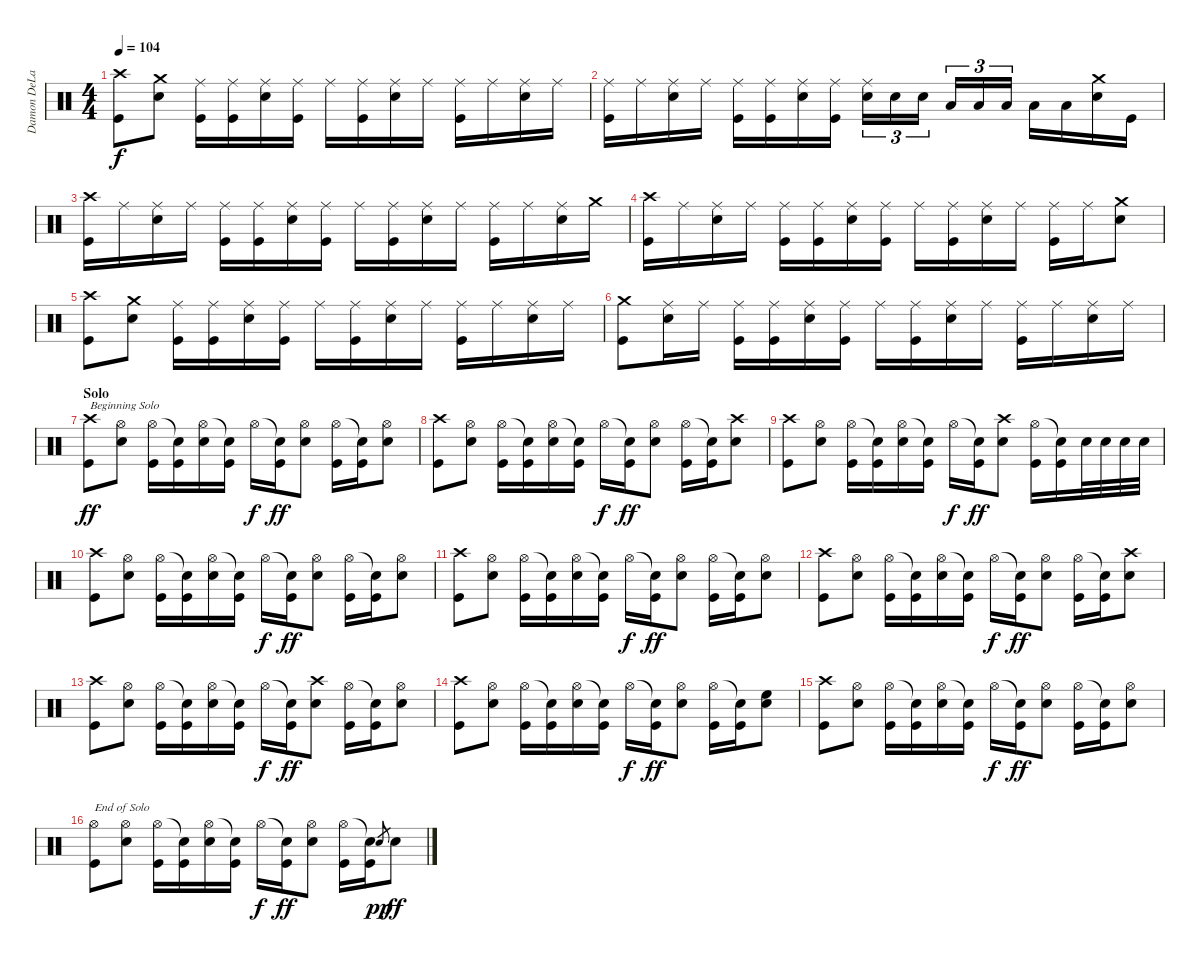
\track ("Damon DeLapaz - Drums" "Damon DeLa") {instrument percussion}
\staff {score}
\articulation defaults
\ts (4 4)
\tempo 104
\clef neutral
\ks c
("Crash high (hit)" "Kick (hit)").8{dy f} ("Crash medium (hit)" "Snare (hit) 2").8 ("Ride (middle)" "Kick (hit)").16 ("Ride (middle)" "Kick (hit)").16 ("Ride (middle)" "Snare (hit) 2").16 ("Ride (middle)" "Kick (hit)").16 "Ride (middle)".16 ("Ride (middle)" "Kick (hit)").16 ("Ride (middle)" "Snare (hit) 2").16 "Ride (middle)".16 ("Ride (middle)" "Kick (hit)").16 "Ride (middle)".16 ("Ride (middle)" "Snare (hit) 2").16 "Ride (middle)".16 |
("Ride (middle)" "Kick (hit)").16 "Ride (middle)".16 ("Ride (middle)" "Snare (hit) 2").16 "Ride (middle)".16 ("Ride (middle)" "Kick (hit)").16 ("Ride (middle)" "Kick (hit)").16 ("Ride (middle)" "Snare (hit) 2").16 ("Ride (middle)" "Kick (hit)").16 ("Ride (middle)" "Snare (hit) 2").16{tu (3 2)} "Snare (hit) 2".16{tu (3 2)} "Snare (hit) 2".16{tu (3 2)} "Low Tom (hit)".16{tu (3 2)} "Low Tom (hit)".16{tu (3 2)} "Low Tom (hit)".16{tu (3 2)} "Low Floor Tom (hit)".16 "Low Floor Tom (hit)".16 ("Crash medium (hit)" "Snare (hit) 2").16 "Kick (hit)".16 |
("Crash high (hit)" "Kick (hit)").16 "Ride (middle)".16 ("Ride (middle)" "Snare (hit) 2").16 "Ride (middle)".16 ("Ride (middle)" "Kick (hit)").16 ("Ride (middle)" "Kick (hit)").16 ("Ride (middle)" "Snare (hit) 2").16 ("Ride (middle)" "Kick (hit)").16 "Ride (middle)".16 ("Ride (middle)" "Kick (hit)").16 ("Ride (middle)" "Snare (hit) 2").16 "Ride (middle)".16 ("Ride (middle)" "Kick (hit)").16 "Ride (middle)".16 ("Ride (middle)" "Snare (hit) 2").16 "Crash medium (hit)".16 |
("Crash high (hit)" "Kick (hit)").16 "Ride (middle)".16 ("Ride (middle)" "Snare (hit) 2").16 "Ride (middle)".16 ("Ride (middle)" "Kick (hit)").16 ("Ride (middle)" "Kick (hit)").16 ("Ride (middle)" "Snare (hit) 2").16 ("Ride (middle)" "Kick (hit)").16 "Ride (middle)".16 ("Ride (middle)" "Kick (hit)").16 ("Ride (middle)" "Snare (hit) 2").16 "Ride (middle)".16 ("Ride (middle)" "Kick (hit)").16 "Ride (middle)".16 ("Crash medium (hit)" "Snare (hit) 2").8 |
("Crash high (hit)" "Kick (hit)").8 ("Crash medium (hit)" "Snare (hit) 2").8 ("Ride (middle)" "Kick (hit)").16 ("Ride (middle)" "Kick (hit)").16 ("Ride (middle)" "Snare (hit) 2").16 ("Ride (middle)" "Kick (hit)").16 "Ride (middle)".16 ("Ride (middle)" "Kick (hit)").16 ("Ride (middle)" "Snare (hit) 2").16 "Ride (middle)".16 ("Ride (middle)" "Kick (hit)").16 "Ride (middle)".16 ("Ride (middle)" "Snare (hit) 2").16 "Ride (middle)".16 |
("Crash medium (hit)" "Kick (hit)").8 ("Ride (middle)" "Snare (hit) 2").16 "Ride (middle)".16 ("Ride (middle)" "Kick (hit)").16 ("Ride (middle)" "Kick (hit)").16 ("Ride (middle)" "Snare (hit) 2").16 ("Ride (middle)" "Kick (hit)").16 "Ride (middle)".16 ("Ride (middle)" "Kick (hit)").16 ("Ride (middle)" "Snare (hit) 2").16 "Ride (middle)".16 ("Ride (middle)" "Kick (hit)").16 "Ride (middle)".16 ("Ride (middle)" "Snare (hit) 2").16 "Ride (middle)".16 |
\section ("" "Solo")
("Crash high (hit)" "Kick (hit)").8{txt "Beginning Solo" dy ff volume 12} ("Hi-Hat (open)" "Snare (hit) 2").8 ("Hi-Hat (open)" "Kick (hit)").16 ("Snare (hit)"{t} "Kick (hit)").16 ("Hi-Hat (open)" "Snare (hit) 2").16 ("Snare (hit)"{t} "Kick (hit)").16 "Hi-Hat (open)".16{dy f} ("Snare (hit)"{t} "Kick (hit)").16{dy ff} ("Hi-Hat (open)" "Snare (hit) 2").8 ("Hi-Hat (open)" "Kick (hit)").16 ("Snare (hit)"{t} "Kick (hit)").16 ("Hi-Hat (open)" "Snare (hit) 2").8 |
("Crash high (hit)" "Kick (hit)").8 ("Hi-Hat (open)" "Snare (hit) 2").8 ("Hi-Hat (open)" "Kick (hit)").16 ("Snare (hit)"{t} "Kick (hit)").16 ("Hi-Hat (open)" "Snare (hit) 2").16 ("Snare (hit)"{t} "Kick (hit)").16 "Hi-Hat (open)".16{dy f} ("Snare (hit)"{t} "Kick (hit)").16{dy ff} ("Hi-Hat (open)" "Snare (hit) 2").8 ("Hi-Hat (open)" "Kick (hit)").16 ("Snare (hit)"{t} "Kick (hit)").16 ("Crash high (hit)" "Snare (hit) 2").8 |
("Crash high (hit)" "Kick (hit)").8 ("Hi-Hat (open)" "Snare (hit) 2").8 ("Hi-Hat (open)" "Kick (hit)").16 ("Snare (hit)"{t} "Kick (hit)").16 ("Hi-Hat (open)" "Snare (hit) 2").16 ("Snare (hit)"{t} "Kick (hit)").16 "Hi-Hat (open)".16{dy f} ("Snare (hit)"{t} "Kick (hit)").16{dy ff} ("Crash high (hit)" "Snare (hit) 2").8 ("Hi-Hat (open)" "Kick (hit)").16 ("Snare (hit)"{t} "Kick (hit)").16 "Snare (hit) 2".32 "Snare (hit) 2".32 "Snare (hit) 2".32 "Snare (hit) 2".32 |
("Crash high (hit)" "Kick (hit)").8 ("Hi-Hat (open)" "Snare (hit) 2").8 ("Hi-Hat (open)" "Kick (hit)").16 ("Snare (hit)"{t} "Kick (hit)").16 ("Hi-Hat (open)" "Snare (hit) 2").16 ("Snare (hit)"{t} "Kick (hit)").16 "Hi-Hat (open)".16{dy f} ("Snare (hit)"{t} "Kick (hit)").16{dy ff} ("Hi-Hat (open)" "Snare (hit) 2").8 ("Hi-Hat (open)" "Kick (hit)").16 ("Snare (hit)"{t} "Kick (hit)").16 ("Hi-Hat (open)" "Snare (hit) 2").8 |
("Crash high (hit)" "Kick (hit)").8 ("Hi-Hat (open)" "Snare (hit) 2").8 ("Hi-Hat (open)" "Kick (hit)").16 ("Snare (hit)"{t} "Kick (hit)").16 ("Hi-Hat (open)" "Snare (hit) 2").16 ("Snare (hit)"{t} "Kick (hit)").16 "Hi-Hat (open)".16{dy f} ("Snare (hit)"{t} "Kick (hit)").16{dy ff} ("Hi-Hat (open)" "Snare (hit) 2").8 ("Hi-Hat (open)" "Kick (hit)").16 ("Snare (hit)"{t} "Kick (hit)").16 ("Hi-Hat (open)" "Snare (hit) 2").8 |
("Crash high (hit)" "Kick (hit)").8 ("Hi-Hat (open)" "Snare (hit) 2").8 ("Hi-Hat (open)" "Kick (hit)").16 ("Snare (hit)"{t} "Kick (hit)").16 ("Hi-Hat (open)" "Snare (hit) 2").16 ("Snare (hit)"{t} "Kick (hit)").16 "Hi-Hat (open)".16{dy f} ("Snare (hit)"{t} "Kick (hit)").16{dy ff} ("Hi-Hat (open)" "Snare (hit) 2").8 ("Hi-Hat (open)" "Kick (hit)").16 ("Snare (hit)"{t} "Kick (hit)").16 ("Crash high (hit)" "Snare (hit) 2").8 |
("Crash high (hit)" "Kick (hit)").8{volume 13} ("Hi-Hat (open)" "Snare (hit) 2").8 ("Hi-Hat (open)" "Kick (hit)").16 ("Snare (hit)"{t} "Kick (hit)").16 ("Hi-Hat (open)" "Snare (hit) 2").16 ("Snare (hit)"{t} "Kick (hit)").16 "Hi-Hat (open)".16{dy f} ("Snare (hit)"{t} "Kick (hit)").16{dy ff} ("Crash high (hit)" "Snare (hit) 2").8 ("Hi-Hat (open)" "Kick (hit)").16 ("Snare (hit)"{t} "Kick (hit)").16 ("Hi-Hat (open)" "Snare (hit) 2").8 |
("Crash high (hit)" "Kick (hit)").8 ("Hi-Hat (open)" "Snare (hit) 2").8 ("Hi-Hat (open)" "Kick (hit)").16 ("Snare (hit)"{t} "Kick (hit)").16 ("Hi-Hat (open)" "Snare (hit) 2").16 ("Snare (hit)"{t} "Kick (hit)").16 "Hi-Hat (open)".16{dy f} ("Snare (hit)"{t} "Kick (hit)").16{dy ff} ("Hi-Hat (open)" "Snare (hit) 2").8 ("Hi-Hat (open)" "Kick (hit)").16 ("Snare (hit)"{t} "Kick (hit)").16 ("Snare (hit) 2" "High Floor Tom (hit)").8 |
("Crash high (hit)" "Kick (hit)").8 ("Hi-Hat (open)" "Snare (hit) 2").8 ("Hi-Hat (open)" "Kick (hit)").16 ("Snare (hit)"{t} "Kick (hit)").16 ("Hi-Hat (open)" "Snare (hit) 2").16 ("Snare (hit)"{t} "Kick (hit)").16 "Hi-Hat (open)".16{dy f} ("Snare (hit)"{t} "Kick (hit)").16{dy ff} ("Hi-Hat (open)" "Snare (hit) 2").8 ("Hi-Hat (open)" "Kick (hit)").16 ("Snare (hit)"{t} "Kick (hit)").16 ("Hi-Hat (open)" "Snare (hit) 2").8 |
("Hi-Hat (open)" "Kick (hit)").8{txt "End of Solo"} ("Hi-Hat (open)" "Snare (hit) 2").8 ("Hi-Hat (open)" "Kick (hit)").16 ("Snare (hit)"{t} "Kick (hit)").16 ("Hi-Hat (open)" "Snare (hit) 2").16 ("Snare (hit)"{t} "Kick (hit)").16 "Hi-Hat (open)".16{dy f} ("Snare (hit)"{t} "Kick (hit)").16{dy ff} ("Hi-Hat (open)" "Snare (hit) 2").8 ("Hi-Hat (open)" "Kick (hit)").16 ("Snare (hit)"{t} "Kick (hit)").16 "Snare (hit) 2".8{gr dy pp} "Snare (hit) 2".8{dy ff}
